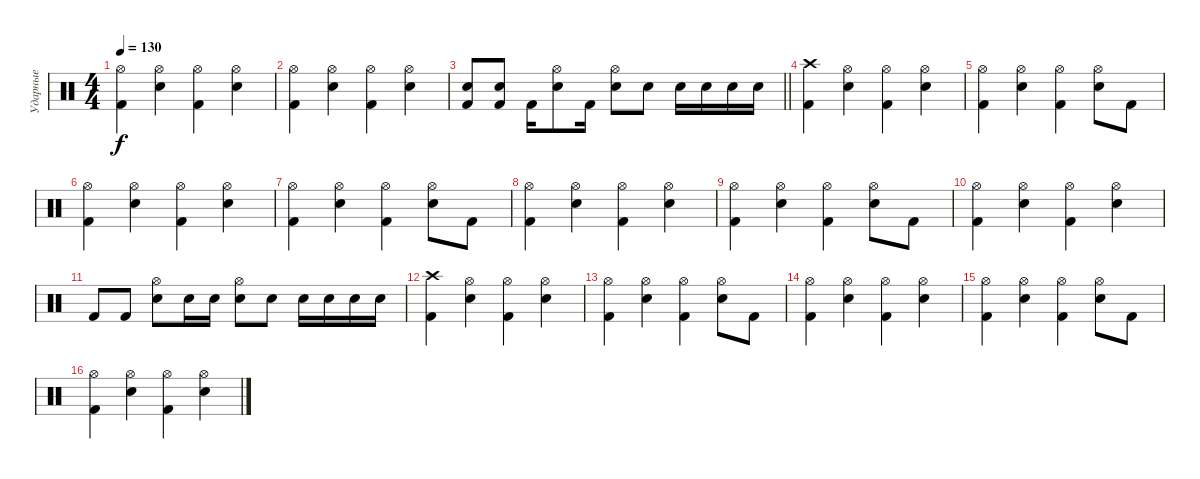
\track ("Ударные" "Ударные") {instrument percussion}
\staff
\articulation defaults
\ts (4 4)
\tempo 130
\clef neutral
\ks c
("Kick (hit) 2" "Hi-Hat (open)").4{dy f} ("Snare (hit) 2" "Hi-Hat (open)").4 ("Kick (hit) 2" "Hi-Hat (open)").4 ("Snare (hit) 2" "Hi-Hat (open)").4 |
("Kick (hit) 2" "Hi-Hat (open)").4 ("Snare (hit) 2" "Hi-Hat (open)").4 ("Kick (hit) 2" "Hi-Hat (open)").4 ("Snare (hit) 2" "Hi-Hat (open)").4 |
\barLineRight lightlight
("Kick (hit) 2" "Snare (hit) 2").8 ("Kick (hit) 2" "Snare (hit) 2").8 "Kick (hit) 2".16 ("Snare (hit) 2" "Hi-Hat (open)").8 "Kick (hit) 2".16 ("Snare (hit) 2" "Hi-Hat (open)").8 "Snare (hit) 2".8 "Snare (hit) 2".16 "Snare (hit) 2".16 "Snare (hit) 2".16 "Snare (hit) 2".16 |
("Kick (hit) 2" "Crash high (hit)").4 ("Snare (hit) 2" "Hi-Hat (open)").4 ("Kick (hit) 2" "Hi-Hat (open)").4 ("Snare (hit) 2" "Hi-Hat (open)").4 |
("Kick (hit) 2" "Hi-Hat (open)").4 ("Snare (hit) 2" "Hi-Hat (open)").4 ("Kick (hit) 2" "Hi-Hat (open)").4 ("Snare (hit) 2" "Hi-Hat (open)").8 "Kick (hit) 2".8 |
("Kick (hit) 2" "Hi-Hat (open)").4 ("Snare (hit) 2" "Hi-Hat (open)").4 ("Kick (hit) 2" "Hi-Hat (open)").4 ("Snare (hit) 2" "Hi-Hat (open)").4 |
("Kick (hit) 2" "Hi-Hat (open)").4 ("Snare (hit) 2" "Hi-Hat (open)").4 ("Kick (hit) 2" "Hi-Hat (open)").4 ("Snare (hit) 2" "Hi-Hat (open)").8 "Kick (hit) 2".8 |
("Kick (hit) 2" "Hi-Hat (open)").4 ("Snare (hit) 2" "Hi-Hat (open)").4 ("Kick (hit) 2" "Hi-Hat (open)").4 ("Snare (hit) 2" "Hi-Hat (open)").4 |
("Kick (hit) 2" "Hi-Hat (open)").4 ("Snare (hit) 2" "Hi-Hat (open)").4 ("Kick (hit) 2" "Hi-Hat (open)").4 ("Snare (hit) 2" "Hi-Hat (open)").8 "Kick (hit) 2".8 |
("Kick (hit) 2" "Hi-Hat (open)").4 ("Snare (hit) 2" "Hi-Hat (open)").4 ("Kick (hit) 2" "Hi-Hat (open)").4 ("Snare (hit) 2" "Hi-Hat (open)").4 |
"Kick (hit) 2".8 "Kick (hit) 2".8 ("Snare (hit) 2" "Hi-Hat (open)").8 "Snare (hit) 2".16 "Snare (hit) 2".16 ("Snare (hit) 2" "Hi-Hat (open)").8 "Snare (hit) 2".8 "Snare (hit) 2".16 "Snare (hit) 2".16 "Snare (hit) 2".16 "Snare (hit) 2".16 |
("Kick (hit) 2" "Crash high (hit)").4 ("Snare (hit) 2" "Hi-Hat (open)").4 ("Kick (hit) 2" "Hi-Hat (open)").4 ("Snare (hit) 2" "Hi-Hat (open)").4 |
("Kick (hit) 2" "Hi-Hat (open)").4 ("Snare (hit) 2" "Hi-Hat (open)").4 ("Kick (hit) 2" "Hi-Hat (open)").4 ("Snare (hit) 2" "Hi-Hat (open)").8 "Kick (hit) 2".8 |
("Kick (hit) 2" "Hi-Hat (open)").4 ("Snare (hit) 2" "Hi-Hat (open)").4 ("Kick (hit) 2" "Hi-Hat (open)").4 ("Snare (hit) 2" "Hi-Hat (open)").4 |
("Kick (hit) 2" "Hi-Hat (open)").4 ("Snare (hit) 2" "Hi-Hat (open)").4 ("Kick (hit) 2" "Hi-Hat (open)").4 ("Snare (hit) 2" "Hi-Hat (open)").8 "Kick (hit) 2".8 |
("Kick (hit) 2" "Hi-Hat (open)").4 ("Snare (hit) 2" "Hi-Hat (open)").4 ("Kick (hit) 2" "Hi-Hat (open)").4 ("Snare (hit) 2" "Hi-Hat (open)").4
